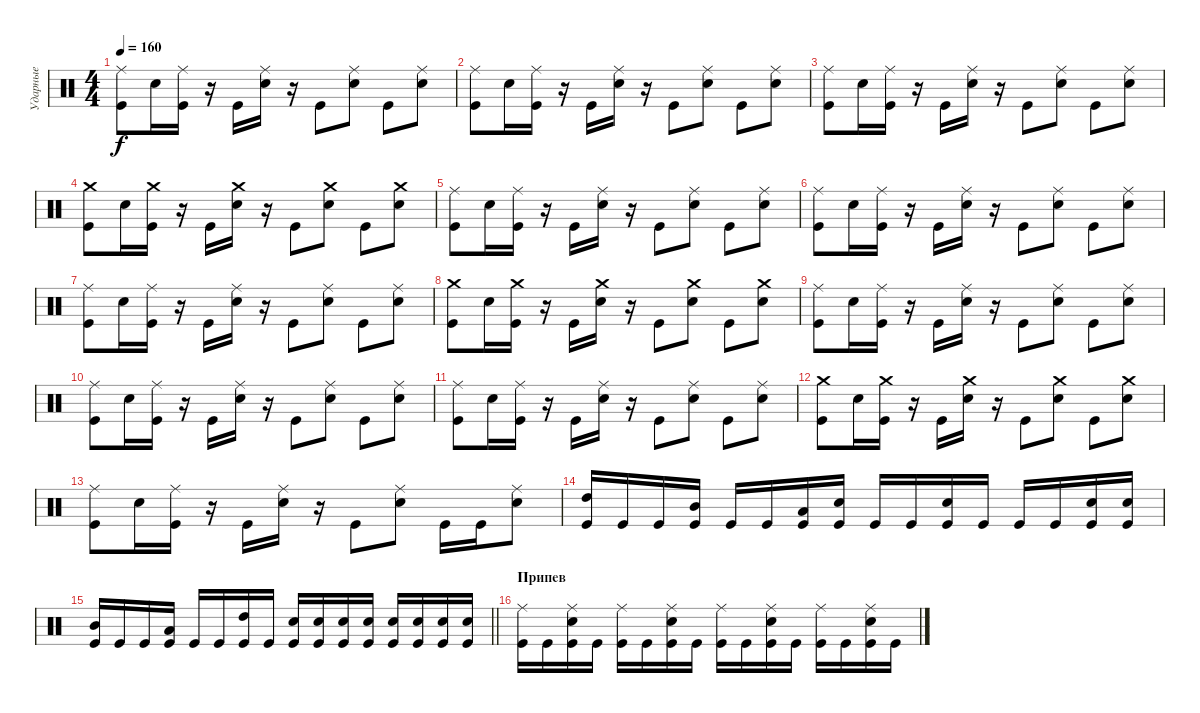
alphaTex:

\track ("Ударные" "Ударные") {instrument percussion}
\staff {score}
\articulation defaults
\ts (4 4)
\tempo 160
\clef neutral
\ks c
("Kick (hit)" "Ride (middle)").8{dy f} "Snare (hit) 2".16 ("Kick (hit)" "Ride (middle)").16 r.16 "Kick (hit)".16 ("Snare (hit) 2" "Ride (middle)").16 r.16 "Kick (hit)".8 ("Snare (hit) 2" "Ride (middle)").8 "Kick (hit)".8 ("Snare (hit) 2" "Ride (middle)").8 |
("Kick (hit)" "Ride (middle)").8 "Snare (hit) 2".16 ("Kick (hit)" "Ride (middle)").16 r.16 "Kick (hit)".16 ("Snare (hit) 2" "Ride (middle)").16 r.16 "Kick (hit)".8 ("Snare (hit) 2" "Ride (middle)").8 "Kick (hit)".8 ("Snare (hit) 2" "Ride (middle)").8 |
("Kick (hit)" "Ride (middle)").8 "Snare (hit) 2".16 ("Kick (hit)" "Ride (middle)").16 r.16 "Kick (hit)".16 ("Snare (hit) 2" "Ride (middle)").16 r.16 "Kick (hit)".8 ("Snare (hit) 2" "Ride (middle)").8 "Kick (hit)".8 ("Snare (hit) 2" "Ride (middle)").8 |
("Kick (hit)" "Crash medium (hit)").8 "Snare (hit) 2".16 ("Kick (hit)" "Crash medium (hit)").16 r.16 "Kick (hit)".16 ("Snare (hit) 2" "Crash medium (hit)").16 r.16 "Kick (hit)".8 ("Snare (hit) 2" "Crash medium (hit)").8 "Kick (hit)".8 ("Snare (hit) 2" "Crash medium (hit)").8 |
("Kick (hit)" "Ride (middle)").8 "Snare (hit) 2".16 ("Kick (hit)" "Ride (middle)").16 r.16 "Kick (hit)".16 ("Snare (hit) 2" "Ride (middle)").16 r.16 "Kick (hit)".8 ("Snare (hit) 2" "Ride (middle)").8 "Kick (hit)".8 ("Snare (hit) 2" "Ride (middle)").8 |
("Kick (hit)" "Ride (middle)").8 "Snare (hit) 2".16 ("Kick (hit)" "Ride (middle)").16 r.16 "Kick (hit)".16 ("Snare (hit) 2" "Ride (middle)").16 r.16 "Kick (hit)".8 ("Snare (hit) 2" "Ride (middle)").8 "Kick (hit)".8 ("Snare (hit) 2" "Ride (middle)").8 |
("Kick (hit)" "Ride (middle)").8 "Snare (hit) 2".16 ("Kick (hit)" "Ride (middle)").16 r.16 "Kick (hit)".16 ("Snare (hit) 2" "Ride (middle)").16 r.16 "Kick (hit)".8 ("Snare (hit) 2" "Ride (middle)").8 "Kick (hit)".8 ("Snare (hit) 2" "Ride (middle)").8 |
("Kick (hit)" "Crash medium (hit)").8 "Snare (hit) 2".16 ("Kick (hit)" "Crash medium (hit)").16 r.16 "Kick (hit)".16 ("Snare (hit) 2" "Crash medium (hit)").16 r.16 "Kick (hit)".8 ("Snare (hit) 2" "Crash medium (hit)").8 "Kick (hit)".8 ("Snare (hit) 2" "Crash medium (hit)").8 |
("Kick (hit)" "Ride (middle)").8 "Snare (hit) 2".16 ("Kick (hit)" "Ride (middle)").16 r.16 "Kick (hit)".16 ("Snare (hit) 2" "Ride (middle)").16 r.16 "Kick (hit)".8 ("Snare (hit) 2" "Ride (middle)").8 "Kick (hit)".8 ("Snare (hit) 2" "Ride (middle)").8 |
("Kick (hit)" "Ride (middle)").8 "Snare (hit) 2".16 ("Kick (hit)" "Ride (middle)").16 r.16 "Kick (hit)".16 ("Snare (hit) 2" "Ride (middle)").16 r.16 "Kick (hit)".8 ("Snare (hit) 2" "Ride (middle)").8 "Kick (hit)".8 ("Snare (hit) 2" "Ride (middle)").8 |
("Kick (hit)" "Ride (middle)").8 "Snare (hit) 2".16 ("Kick (hit)" "Ride (middle)").16 r.16 "Kick (hit)".16 ("Snare (hit) 2" "Ride (middle)").16 r.16 "Kick (hit)".8 ("Snare (hit) 2" "Ride (middle)").8 "Kick (hit)".8 ("Snare (hit) 2" "Ride (middle)").8 |
("Kick (hit)" "Crash medium (hit)").8 "Snare (hit) 2".16 ("Kick (hit)" "Crash medium (hit)").16 r.16 "Kick (hit)".16 ("Snare (hit) 2" "Crash medium (hit)").16 r.16 "Kick (hit)".8 ("Snare (hit) 2" "Crash medium (hit)").8 "Kick (hit)".8 ("Snare (hit) 2" "Crash medium (hit)").8 |
("Kick (hit)" "Ride (middle)").8 "Snare (hit) 2".16 ("Kick (hit)" "Ride (middle)").16 r.16 "Kick (hit)".16 ("Snare (hit) 2" "Ride (middle)").16 r.16 "Kick (hit)".8 ("Snare (hit) 2" "Ride (middle)").8 "Kick (hit)".16 "Kick (hit)".16 ("Snare (hit) 2" "Ride (middle)").8 |
("Kick (hit)" "High Tom (hit)").16 "Kick (hit)".16 "Kick (hit)".16 ("Kick (hit)" "Mid Tom (hit)").16 "Kick (hit)".16 "Kick (hit)".16 ("Kick (hit)" "Low Tom (hit)").16 ("Kick (hit)" "Snare (hit) 2").16 "Kick (hit)".16 "Kick (hit)".16 ("Kick (hit)" "Snare (hit) 2").16 "Kick (hit)".16 "Kick (hit)".16 "Kick (hit)".16 ("Kick (hit)" "Snare (hit) 2").16 ("Kick (hit)" "Snare (hit) 2").16 |
\barLineRight lightlight
("Kick (hit)" "Mid Tom (hit)").16 "Kick (hit)".16 "Kick (hit)".16 ("Kick (hit)" "Low Tom (hit)").16 "Kick (hit)".16 "Kick (hit)".16 ("Kick (hit)" "High Tom (hit)").16 "Kick (hit)".16 ("Kick (hit)" "Snare (hit) 2").16 ("Kick (hit)" "Snare (hit) 2").16 ("Kick (hit)" "Snare (hit) 2").16 ("Kick (hit)" "Snare (hit) 2").16 ("Kick (hit)" "Snare (hit) 2").16 ("Kick (hit)" "Snare (hit) 2").16 ("Kick (hit)" "Snare (hit) 2").16 ("Kick (hit)" "Snare (hit) 2").16 |
\section ("" "Припев")
("Kick (hit)" "Ride (middle)").16 "Kick (hit)".16 ("Kick (hit)" "Snare (hit) 2" "Ride (middle)").16 "Kick (hit)".16 ("Kick (hit)" "Ride (middle)").16 "Kick (hit)".16 ("Kick (hit)" "Snare (hit) 2" "Ride (middle)").16 "Kick (hit)".16 ("Kick (hit)" "Ride (middle)").16 "Kick (hit)".16 ("Kick (hit)" "Snare (hit) 2" "Ride (middle)").16 "Kick (hit)".16 ("Kick (hit)" "Ride (middle)").16 "Kick (hit)".16 ("Kick (hit)" "Snare (hit) 2" "Ride (middle)").16 "Kick (hit)".16
